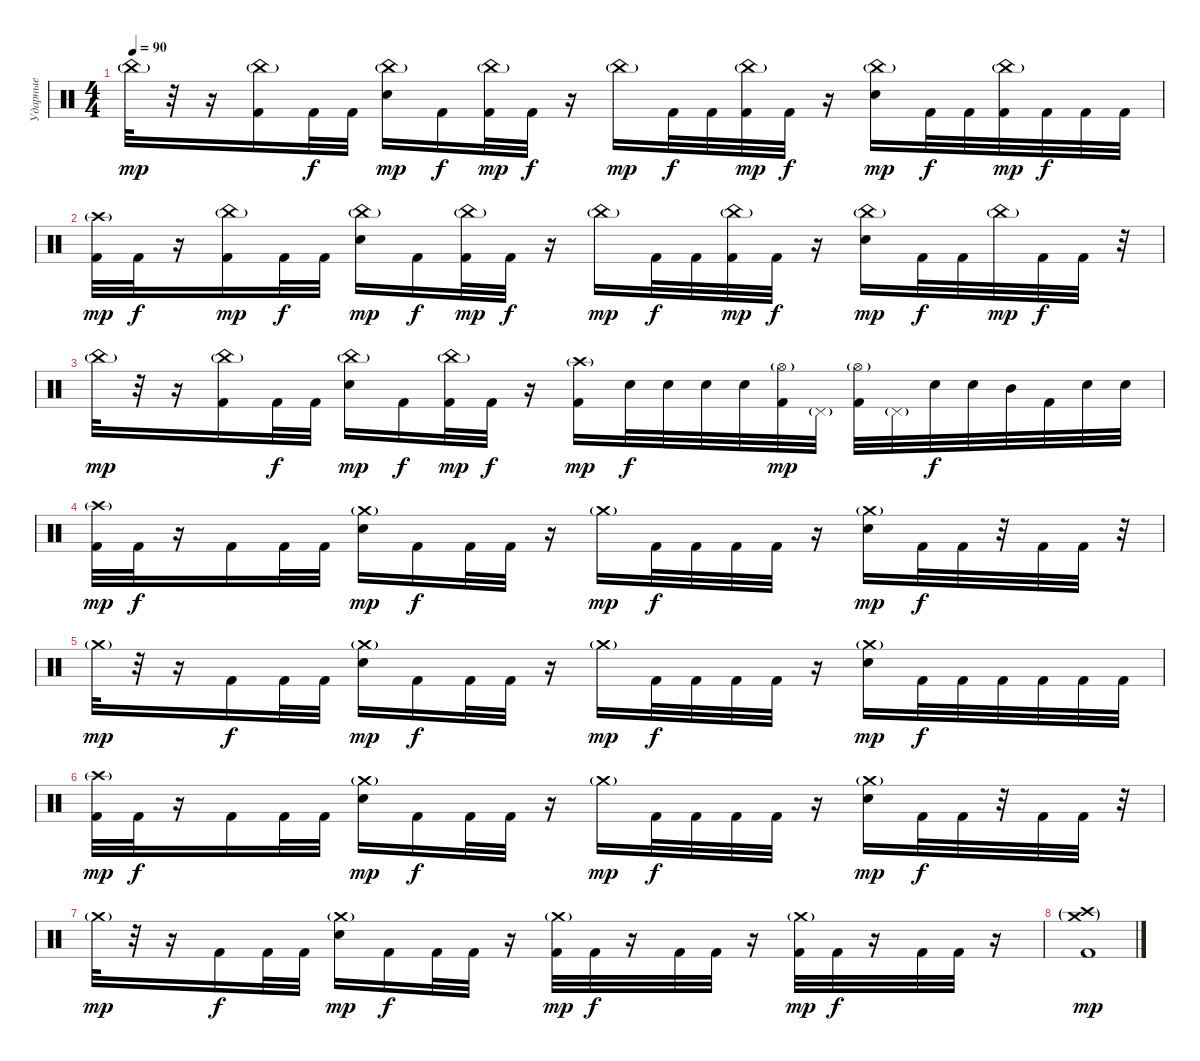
\track ("Ударные" "Ударные") {instrument percussion}
\staff {score}
\articulation defaults
\ts (4 4)
\tempo 90
\clef neutral
\ks c "China (hit)"{g}.32{dy mp}
r.32 r.16 ("China (hit)"{g} "Kick (hit) 2").16 "Kick (hit) 2".32{dy f} "Kick (hit) 2".32 ("China (hit)"{g} "Electric Snare (hit)").16{dy mp} "Kick (hit) 2".16{dy f} ("China (hit)"{g} "Kick (hit) 2").32{dy mp} "Kick (hit) 2".32{dy f} r.16 "China (hit)"{g}.16{dy mp} "Kick (hit) 2".32{dy f} "Kick (hit) 2".32 ("China (hit)"{g} "Kick (hit) 2").32{dy mp} "Kick (hit) 2".32{dy f} r.16 ("China (hit)"{g} "Electric Snare (hit)").16{dy mp} "Kick (hit) 2".32{dy f} "Kick (hit) 2".32 ("China (hit)"{g} "Kick (hit) 2").32{dy mp} "Kick (hit) 2".32{dy f} "Kick (hit) 2".32 "Kick (hit) 2".32 |
("Crash high (hit)"{g} "Kick (hit) 2").32{dy mp} "Kick (hit) 2".32{dy f} r.16 ("China (hit)"{g} "Kick (hit) 2").16{dy mp} "Kick (hit) 2".32{dy f} "Kick (hit) 2".32 ("China (hit)"{g} "Electric Snare (hit)").16{dy mp} "Kick (hit) 2".16{dy f} ("China (hit)"{g} "Kick (hit) 2").32{dy mp} "Kick (hit) 2".32{dy f} r.16 "China (hit)"{g}.16{dy mp} "Kick (hit) 2".32{dy f} "Kick (hit) 2".32 ("China (hit)"{g} "Kick (hit) 2").32{dy mp} "Kick (hit) 2".32{dy f} r.16 ("China (hit)"{g} "Electric Snare (hit)").16{dy mp} "Kick (hit) 2".32{dy f} "Kick (hit) 2".32 "China (hit)"{g}.32{dy mp} "Kick (hit) 2".32{dy f} "Kick (hit) 2".32 r.32 |
"China (hit)"{g}.32{dy mp} r.32 r.16 ("China (hit)"{g} "Kick (hit) 2").16 "Kick (hit) 2".32{dy f} "Kick (hit) 2".32 ("China (hit)"{g} "Electric Snare (hit)").16{dy mp} "Kick (hit) 2".16{dy f} ("China (hit)"{g} "Kick (hit) 2").32{dy mp} "Kick (hit) 2".32{dy f} r.16 ("Crash high (hit)"{g} "Kick (hit) 2").16{dy mp} "Electric Snare (hit)".32{dy f} "Electric Snare (hit)".32 "Electric Snare (hit)".32 "Electric Snare (hit)".32 ("Hi-Hat (open)"{g} "Kick (hit) 2").32{dy mp} "Pedal Hi-Hat (hit)"{g}.32 ("Hi-Hat (open)"{g} "Kick (hit) 2").32 "Pedal Hi-Hat (hit)"{g}.32 "Electric Snare (hit)".32{dy f} "Electric Snare (hit)".32 "Mid Tom (hit)".32 "Kick (hit) 2".32 "Electric Snare (hit)".32 "Electric Snare (hit)".32 |
("Crash high (hit)"{g} "Kick (hit) 2").32{dy mp} "Kick (hit) 2".32{dy f} r.16 "Kick (hit) 2".16 "Kick (hit) 2".32 "Kick (hit) 2".32 ("Crash medium (hit)"{g} "Electric Snare (hit)").16{dy mp} "Kick (hit) 2".16{dy f} "Kick (hit) 2".32 "Kick (hit) 2".32 r.16 "Crash medium (hit)"{g}.16{dy mp} "Kick (hit) 2".32{dy f} "Kick (hit) 2".32 "Kick (hit) 2".32 "Kick (hit) 2".32 r.16 ("Crash medium (hit)"{g} "Electric Snare (hit)").16{dy mp} "Kick (hit) 2".32{dy f} "Kick (hit) 2".32 r.32 "Kick (hit) 2".32 "Kick (hit) 2".32 r.32 |
"Crash medium (hit)"{g}.32{dy mp} r.32 r.16 "Kick (hit) 2".16{dy f} "Kick (hit) 2".32 "Kick (hit) 2".32 ("Crash medium (hit)"{g} "Electric Snare (hit)").16{dy mp} "Kick (hit) 2".16{dy f} "Kick (hit) 2".32 "Kick (hit) 2".32 r.16 "Crash medium (hit)"{g}.16{dy mp} "Kick (hit) 2".32{dy f} "Kick (hit) 2".32 "Kick (hit) 2".32 "Kick (hit) 2".32 r.16 ("Crash medium (hit)"{g} "Electric Snare (hit)").16{dy mp} "Kick (hit) 2".32{dy f} "Kick (hit) 2".32 "Kick (hit) 2".32 "Kick (hit) 2".32 "Kick (hit) 2".32 "Kick (hit) 2".32 |
("Crash high (hit)"{g} "Kick (hit) 2").32{dy mp} "Kick (hit) 2".32{dy f} r.16 "Kick (hit) 2".16 "Kick (hit) 2".32 "Kick (hit) 2".32 ("Crash medium (hit)"{g} "Electric Snare (hit)").16{dy mp} "Kick (hit) 2".16{dy f} "Kick (hit) 2".32 "Kick (hit) 2".32 r.16 "Crash medium (hit)"{g}.16{dy mp} "Kick (hit) 2".32{dy f} "Kick (hit) 2".32 "Kick (hit) 2".32 "Kick (hit) 2".32 r.16 ("Crash medium (hit)"{g} "Electric Snare (hit)").16{dy mp} "Kick (hit) 2".32{dy f} "Kick (hit) 2".32 r.32 "Kick (hit) 2".32 "Kick (hit) 2".32 r.32 |
"Crash medium (hit)"{g}.32{dy mp} r.32 r.16 "Kick (hit) 2".16{dy f} "Kick (hit) 2".32 "Kick (hit) 2".32 ("Crash medium (hit)"{g} "Electric Snare (hit)").16{dy mp} "Kick (hit) 2".16{dy f} "Kick (hit) 2".32 "Kick (hit) 2".32 r.16 ("Crash medium (hit)"{g} "Kick (hit) 2").32{dy mp} "Kick (hit) 2".32{dy f} r.16 "Kick (hit) 2".32 "Kick (hit) 2".32 r.16 ("Crash medium (hit)"{g} "Kick (hit) 2").32{dy mp} "Kick (hit) 2".32{dy f} r.16 "Kick (hit) 2".32 "Kick (hit) 2".32 r.16 |
("Crash high (hit)"{g} "Crash medium (hit)"{g} "Kick (hit) 2").1{dy mp}
